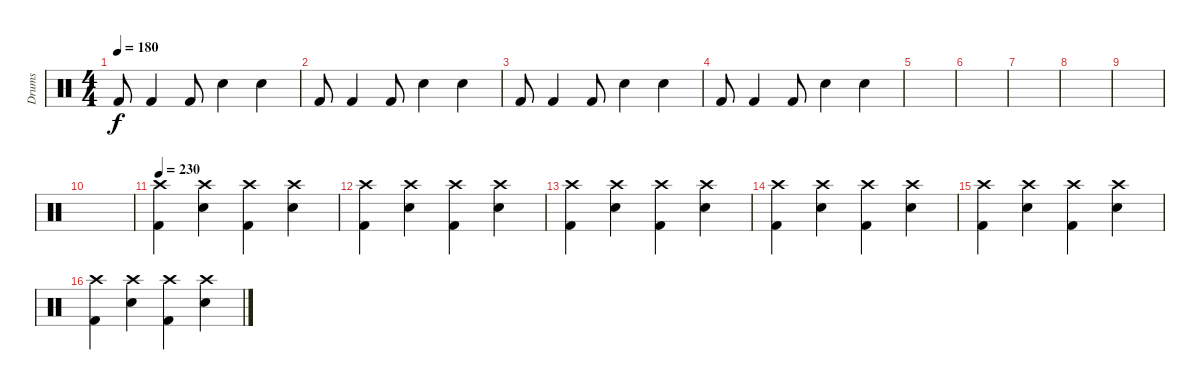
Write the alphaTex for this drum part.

\track ("Drums" "Drums") {instrument percussion}
\staff {score}
\articulation defaults
\ts (4 4)
\tempo 180
\clef neutral
\ks c "Kick (hit) 2".8{dy f} "Kick (hit) 2".4 "Kick (hit) 2".8 "Snare (hit) 2".4 "Snare (hit) 2".4
|
"Kick (hit) 2".8 "Kick (hit) 2".4 "Kick (hit) 2".8 "Snare (hit) 2".4 "Snare (hit) 2".4 |
"Kick (hit) 2".8 "Kick (hit) 2".4 "Kick (hit) 2".8 "Snare (hit) 2".4 "Snare (hit) 2".4 |
"Kick (hit) 2".8 "Kick (hit) 2".4 "Kick (hit) 2".8 "Snare (hit) 2".4 "Snare (hit) 2".4 |
|
|
|
|
|
|
\tempo 230
("Kick (hit) 2" "Crash high (hit)").4 ("Snare (hit) 2" "Crash high (hit)").4 ("Kick (hit) 2" "Crash high (hit)").4 ("Snare (hit) 2" "Crash high (hit)").4 |
("Kick (hit) 2" "Crash high (hit)").4 ("Snare (hit) 2" "Crash high (hit)").4 ("Kick (hit) 2" "Crash high (hit)").4 ("Snare (hit) 2" "Crash high (hit)").4 |
("Kick (hit) 2" "Crash high (hit)").4 ("Snare (hit) 2" "Crash high (hit)").4 ("Kick (hit) 2" "Crash high (hit)").4 ("Snare (hit) 2" "Crash high (hit)").4 |
("Kick (hit) 2" "Crash high (hit)").4 ("Snare (hit) 2" "Crash high (hit)").4 ("Kick (hit) 2" "Crash high (hit)").4 ("Snare (hit) 2" "Crash high (hit)").4 |
("Kick (hit) 2" "Crash high (hit)").4 ("Snare (hit) 2" "Crash high (hit)").4 ("Kick (hit) 2" "Crash high (hit)").4 ("Snare (hit) 2" "Crash high (hit)").4 |
("Kick (hit) 2" "Crash high (hit)").4 ("Snare (hit) 2" "Crash high (hit)").4 ("Kick (hit) 2" "Crash high (hit)").4 ("Snare (hit) 2" "Crash high (hit)").4
